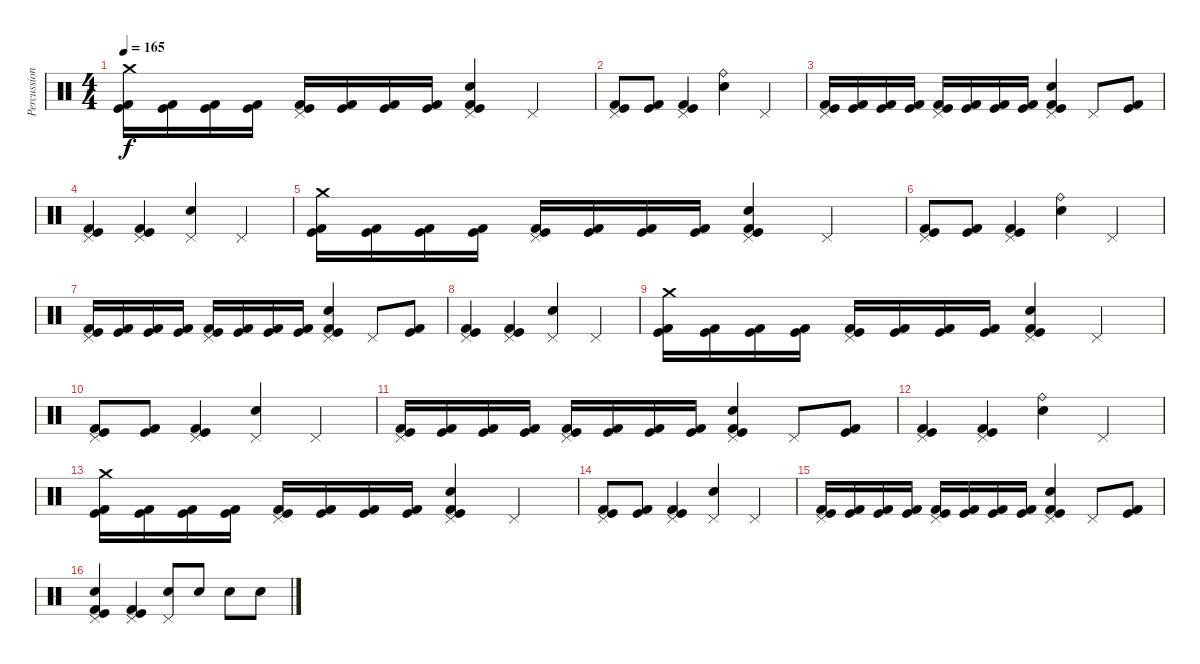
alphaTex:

\track ("Percussions" "Percussion") {instrument percussion}
\staff {score}
\articulation defaults
\ts (4 4)
\tempo 165
\clef neutral
\ks c
("Crash medium (hit)" "Kick (hit)" "Kick (hit) 2").16{dy f} ("Kick (hit)" "Kick (hit) 2").16 ("Kick (hit)" "Kick (hit) 2").16 ("Kick (hit)" "Kick (hit) 2").16 ("Pedal Hi-Hat (hit)" "Kick (hit)" "Kick (hit) 2").16 ("Kick (hit)" "Kick (hit) 2").16 ("Kick (hit)" "Kick (hit) 2").16 ("Kick (hit)" "Kick (hit) 2").16 ("Pedal Hi-Hat (hit)" "Electric Snare (hit)" "Kick (hit)" "Kick (hit) 2").4 "Pedal Hi-Hat (hit)".4 |
("Pedal Hi-Hat (hit)" "Kick (hit)" "Kick (hit) 2").8 ("Kick (hit)" "Kick (hit) 2").8 ("Pedal Hi-Hat (hit)" "Kick (hit)" "Kick (hit) 2").4 ("Ride (bell)" "Electric Snare (hit)").4 "Pedal Hi-Hat (hit)".4 |
("Pedal Hi-Hat (hit)" "Kick (hit)" "Kick (hit) 2").16 ("Kick (hit)" "Kick (hit) 2").16 ("Kick (hit)" "Kick (hit) 2").16 ("Kick (hit)" "Kick (hit) 2").16 ("Pedal Hi-Hat (hit)" "Kick (hit)" "Kick (hit) 2").16 ("Kick (hit)" "Kick (hit) 2").16 ("Kick (hit)" "Kick (hit) 2").16 ("Kick (hit)" "Kick (hit) 2").16 ("Pedal Hi-Hat (hit)" "Electric Snare (hit)" "Kick (hit)" "Kick (hit) 2").4 "Pedal Hi-Hat (hit)".8 ("Kick (hit)" "Kick (hit) 2").8 |
("Pedal Hi-Hat (hit)" "Kick (hit)" "Kick (hit) 2").4 ("Pedal Hi-Hat (hit)" "Kick (hit)" "Kick (hit) 2").4 ("Pedal Hi-Hat (hit)" "Electric Snare (hit)").4 "Pedal Hi-Hat (hit)".4 |
("Crash medium (hit)" "Kick (hit)" "Kick (hit) 2").16 ("Kick (hit)" "Kick (hit) 2").16 ("Kick (hit)" "Kick (hit) 2").16 ("Kick (hit)" "Kick (hit) 2").16 ("Pedal Hi-Hat (hit)" "Kick (hit)" "Kick (hit) 2").16 ("Kick (hit)" "Kick (hit) 2").16 ("Kick (hit)" "Kick (hit) 2").16 ("Kick (hit)" "Kick (hit) 2").16 ("Pedal Hi-Hat (hit)" "Electric Snare (hit)" "Kick (hit)" "Kick (hit) 2").4 "Pedal Hi-Hat (hit)".4 |
("Pedal Hi-Hat (hit)" "Kick (hit)" "Kick (hit) 2").8 ("Kick (hit)" "Kick (hit) 2").8 ("Pedal Hi-Hat (hit)" "Kick (hit)" "Kick (hit) 2").4 ("Ride (bell)" "Electric Snare (hit)").4 "Pedal Hi-Hat (hit)".4 |
("Pedal Hi-Hat (hit)" "Kick (hit)" "Kick (hit) 2").16 ("Kick (hit)" "Kick (hit) 2").16 ("Kick (hit)" "Kick (hit) 2").16 ("Kick (hit)" "Kick (hit) 2").16 ("Pedal Hi-Hat (hit)" "Kick (hit)" "Kick (hit) 2").16 ("Kick (hit)" "Kick (hit) 2").16 ("Kick (hit)" "Kick (hit) 2").16 ("Kick (hit)" "Kick (hit) 2").16 ("Pedal Hi-Hat (hit)" "Electric Snare (hit)" "Kick (hit)" "Kick (hit) 2").4 "Pedal Hi-Hat (hit)".8 ("Kick (hit)" "Kick (hit) 2").8 |
("Pedal Hi-Hat (hit)" "Kick (hit)" "Kick (hit) 2").4 ("Pedal Hi-Hat (hit)" "Kick (hit)" "Kick (hit) 2").4 ("Pedal Hi-Hat (hit)" "Electric Snare (hit)").4 "Pedal Hi-Hat (hit)".4 |
("Crash medium (hit)" "Kick (hit)" "Kick (hit) 2").16 ("Kick (hit)" "Kick (hit) 2").16 ("Kick (hit)" "Kick (hit) 2").16 ("Kick (hit)" "Kick (hit) 2").16 ("Pedal Hi-Hat (hit)" "Kick (hit)" "Kick (hit) 2").16 ("Kick (hit)" "Kick (hit) 2").16 ("Kick (hit)" "Kick (hit) 2").16 ("Kick (hit)" "Kick (hit) 2").16 ("Pedal Hi-Hat (hit)" "Electric Snare (hit)" "Kick (hit)" "Kick (hit) 2").4 "Pedal Hi-Hat (hit)".4 |
("Pedal Hi-Hat (hit)" "Kick (hit)" "Kick (hit) 2").8 ("Kick (hit)" "Kick (hit) 2").8 ("Pedal Hi-Hat (hit)" "Kick (hit)" "Kick (hit) 2").4 ("Pedal Hi-Hat (hit)" "Electric Snare (hit)").4 "Pedal Hi-Hat (hit)".4 |
("Pedal Hi-Hat (hit)" "Kick (hit)" "Kick (hit) 2").16 ("Kick (hit)" "Kick (hit) 2").16 ("Kick (hit)" "Kick (hit) 2").16 ("Kick (hit)" "Kick (hit) 2").16 ("Pedal Hi-Hat (hit)" "Kick (hit)" "Kick (hit) 2").16 ("Kick (hit)" "Kick (hit) 2").16 ("Kick (hit)" "Kick (hit) 2").16 ("Kick (hit)" "Kick (hit) 2").16 ("Pedal Hi-Hat (hit)" "Electric Snare (hit)" "Kick (hit)" "Kick (hit) 2").4 "Pedal Hi-Hat (hit)".8 ("Kick (hit)" "Kick (hit) 2").8 |
("Pedal Hi-Hat (hit)" "Kick (hit)" "Kick (hit) 2").4 ("Pedal Hi-Hat (hit)" "Kick (hit)" "Kick (hit) 2").4 ("Ride (bell)" "Electric Snare (hit)").4 "Pedal Hi-Hat (hit)".4 |
("Crash medium (hit)" "Kick (hit)" "Kick (hit) 2").16 ("Kick (hit)" "Kick (hit) 2").16 ("Kick (hit)" "Kick (hit) 2").16 ("Kick (hit)" "Kick (hit) 2").16 ("Pedal Hi-Hat (hit)" "Kick (hit)" "Kick (hit) 2").16 ("Kick (hit)" "Kick (hit) 2").16 ("Kick (hit)" "Kick (hit) 2").16 ("Kick (hit)" "Kick (hit) 2").16 ("Pedal Hi-Hat (hit)" "Electric Snare (hit)" "Kick (hit)" "Kick (hit) 2").4 "Pedal Hi-Hat (hit)".4 |
("Pedal Hi-Hat (hit)" "Kick (hit)" "Kick (hit) 2").8 ("Kick (hit)" "Kick (hit) 2").8 ("Pedal Hi-Hat (hit)" "Kick (hit)" "Kick (hit) 2").4 ("Pedal Hi-Hat (hit)" "Electric Snare (hit)").4 "Pedal Hi-Hat (hit)".4 |
("Pedal Hi-Hat (hit)" "Kick (hit)" "Kick (hit) 2").16 ("Kick (hit)" "Kick (hit) 2").16 ("Kick (hit)" "Kick (hit) 2").16 ("Kick (hit)" "Kick (hit) 2").16 ("Pedal Hi-Hat (hit)" "Kick (hit)" "Kick (hit) 2").16 ("Kick (hit)" "Kick (hit) 2").16 ("Kick (hit)" "Kick (hit) 2").16 ("Kick (hit)" "Kick (hit) 2").16 ("Pedal Hi-Hat (hit)" "Electric Snare (hit)" "Kick (hit)" "Kick (hit) 2").4 "Pedal Hi-Hat (hit)".8 ("Kick (hit)" "Kick (hit) 2").8 |
("Pedal Hi-Hat (hit)" "Electric Snare (hit)" "Kick (hit)" "Kick (hit) 2").4 ("Pedal Hi-Hat (hit)" "Kick (hit)" "Kick (hit) 2").4 ("Pedal Hi-Hat (hit)" "Electric Snare (hit)").8 "Electric Snare (hit)".8 "Electric Snare (hit)".8 "Electric Snare (hit)".8
